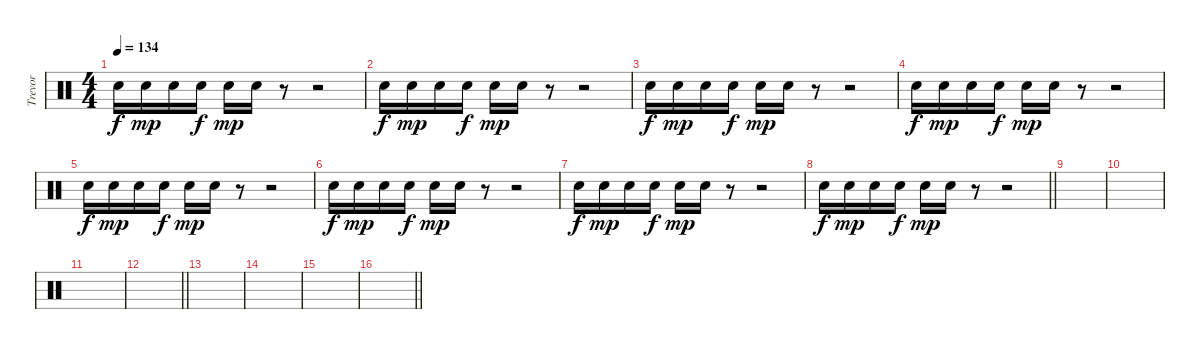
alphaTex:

\track ("Trevor" "Trevor") {instrument percussion}
\staff {score}
\articulation defaults
\ts (4 4)
\section ("" "")
\tempo 134
\clef neutral
\ks c "Snare (hit) 2".16{dy f} "Snare (hit) 2".16{dy mp} "Snare (hit) 2".16 "Snare (hit) 2".16{dy f} "Snare (hit) 2".16{dy mp} "Snare (hit) 2".16
r.8 r.2 |
"Snare (hit) 2".16{dy f} "Snare (hit) 2".16{dy mp} "Snare (hit) 2".16 "Snare (hit) 2".16{dy f} "Snare (hit) 2".16{dy mp} "Snare (hit) 2".16 r.8 r.2 |
"Snare (hit) 2".16{dy f} "Snare (hit) 2".16{dy mp} "Snare (hit) 2".16 "Snare (hit) 2".16{dy f} "Snare (hit) 2".16{dy mp} "Snare (hit) 2".16 r.8 r.2 |
"Snare (hit) 2".16{dy f} "Snare (hit) 2".16{dy mp} "Snare (hit) 2".16 "Snare (hit) 2".16{dy f} "Snare (hit) 2".16{dy mp} "Snare (hit) 2".16 r.8 r.2 |
"Snare (hit) 2".16{dy f} "Snare (hit) 2".16{dy mp} "Snare (hit) 2".16 "Snare (hit) 2".16{dy f} "Snare (hit) 2".16{dy mp} "Snare (hit) 2".16 r.8 r.2 |
"Snare (hit) 2".16{dy f} "Snare (hit) 2".16{dy mp} "Snare (hit) 2".16 "Snare (hit) 2".16{dy f} "Snare (hit) 2".16{dy mp} "Snare (hit) 2".16 r.8 r.2 |
"Snare (hit) 2".16{dy f} "Snare (hit) 2".16{dy mp} "Snare (hit) 2".16 "Snare (hit) 2".16{dy f} "Snare (hit) 2".16{dy mp} "Snare (hit) 2".16 r.8 r.2 |
\barLineRight lightlight "Snare (hit) 2".16{dy f} "Snare (hit) 2".16{dy mp} "Snare (hit) 2".16 "Snare (hit) 2".16{dy f} "Snare (hit) 2".16{dy mp} "Snare (hit) 2".16
r.8 r.2 |
\section ("" "")
|
|
|
\barLineRight lightlight
|
\section ("" "")
|
|
|
\barLineRight lightlight
